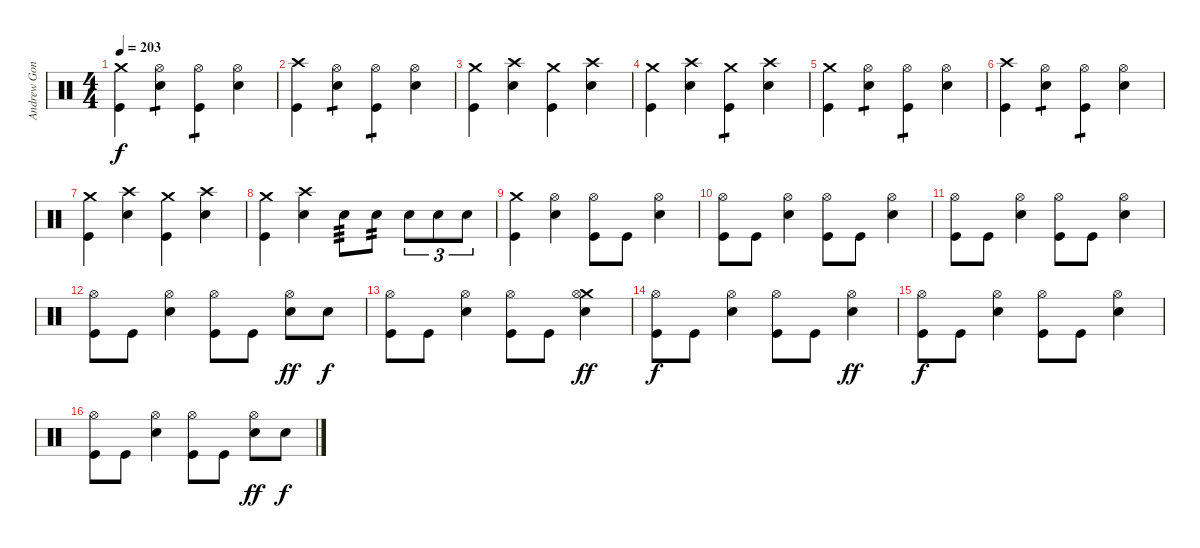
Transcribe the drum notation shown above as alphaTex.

\track ("Andrew Gonzales" "Andrew Gon") {instrument percussion}
\staff {score}
\articulation defaults
\ts (4 4)
\tempo 203
\clef neutral
\ks c
("Crash medium (hit)" "Kick (hit)").4{dy f} ("Hi-Hat (open)" "Electric Snare (hit)").4{tp 1} ("Hi-Hat (open)" "Kick (hit)").4{tp 1} ("Hi-Hat (open)" "Electric Snare (hit)").4 |
("Crash high (hit)" "Kick (hit)").4 ("Hi-Hat (open)" "Electric Snare (hit)").4{tp 1} ("Hi-Hat (open)" "Kick (hit)").4{tp 1} ("Hi-Hat (open)" "Electric Snare (hit)").4 |
("Crash medium (hit)" "Kick (hit)").4 ("Crash high (hit)" "Electric Snare (hit)").4 ("Crash medium (hit)" "Kick (hit)").4 ("Crash high (hit)" "Electric Snare (hit)").4 |
("Crash medium (hit)" "Kick (hit)").4 ("Crash high (hit)" "Electric Snare (hit)").4 ("Crash medium (hit)" "Kick (hit)").4{tp 1} ("Crash high (hit)" "Electric Snare (hit)").4 |
("Crash medium (hit)" "Kick (hit)").4 ("Hi-Hat (open)" "Electric Snare (hit)").4{tp 1} ("Hi-Hat (open)" "Kick (hit)").4{tp 1} ("Hi-Hat (open)" "Electric Snare (hit)").4 |
("Crash high (hit)" "Kick (hit)").4 ("Hi-Hat (open)" "Electric Snare (hit)").4{tp 1} ("Hi-Hat (open)" "Kick (hit)").4{tp 1} ("Hi-Hat (open)" "Electric Snare (hit)").4 |
("Crash medium (hit)" "Kick (hit)").4 ("Crash high (hit)" "Electric Snare (hit)").4 ("Crash medium (hit)" "Kick (hit)").4 ("Crash high (hit)" "Electric Snare (hit)").4 |
("Crash medium (hit)" "Kick (hit)").4 ("Crash high (hit)" "Electric Snare (hit)").4 "Electric Snare (hit)".8{tp 3} "Electric Snare (hit)".8{tp 2} "Electric Snare (hit)".8{tu (3 2)} "Electric Snare (hit)".8{tu (3 2)} "Electric Snare (hit)".8{tu (3 2)} |
("Crash medium (hit)" "Kick (hit)").4 ("Hi-Hat (open)" "Electric Snare (hit)").4 ("Hi-Hat (open)" "Kick (hit)").8 "Kick (hit)".8 ("Hi-Hat (open)" "Electric Snare (hit)").4 |
("Hi-Hat (open)" "Kick (hit)").8 "Kick (hit)".8 ("Hi-Hat (open)" "Electric Snare (hit)").4 ("Hi-Hat (open)" "Kick (hit)").8 "Kick (hit)".8 ("Hi-Hat (open)" "Electric Snare (hit)").4 |
("Hi-Hat (open)" "Kick (hit)").8 "Kick (hit)".8 ("Hi-Hat (open)" "Electric Snare (hit)").4 ("Hi-Hat (open)" "Kick (hit)").8 "Kick (hit)".8 ("Hi-Hat (open)" "Electric Snare (hit)").4 |
("Hi-Hat (open)" "Kick (hit)").8 "Kick (hit)".8 ("Hi-Hat (open)" "Electric Snare (hit)").4 ("Hi-Hat (open)" "Kick (hit)").8 "Kick (hit)".8 ("Hi-Hat (open)" "Electric Snare (hit)").8{dy ff} "Electric Snare (hit)".8{dy f} |
("Hi-Hat (open)" "Kick (hit)").8 "Kick (hit)".8 ("Hi-Hat (open)" "Electric Snare (hit)").4 ("Hi-Hat (open)" "Kick (hit)").8 "Kick (hit)".8 ("Crash medium (hit)" "Hi-Hat (open)" "Electric Snare (hit)").4{dy ff} |
("Hi-Hat (open)" "Kick (hit)").8{dy f} "Kick (hit)".8 ("Hi-Hat (open)" "Electric Snare (hit)").4 ("Hi-Hat (open)" "Kick (hit)").8 "Kick (hit)".8 ("Hi-Hat (open)" "Electric Snare (hit)").4{dy ff} |
("Hi-Hat (open)" "Kick (hit)").8{dy f} "Kick (hit)".8 ("Hi-Hat (open)" "Electric Snare (hit)").4 ("Hi-Hat (open)" "Kick (hit)").8 "Kick (hit)".8 ("Hi-Hat (open)" "Electric Snare (hit)").4 |
("Hi-Hat (open)" "Kick (hit)").8 "Kick (hit)".8 ("Hi-Hat (open)" "Electric Snare (hit)").4 ("Hi-Hat (open)" "Kick (hit)").8 "Kick (hit)".8 ("Hi-Hat (open)" "Electric Snare (hit)").8{dy ff} "Electric Snare (hit)".8{dy f}
